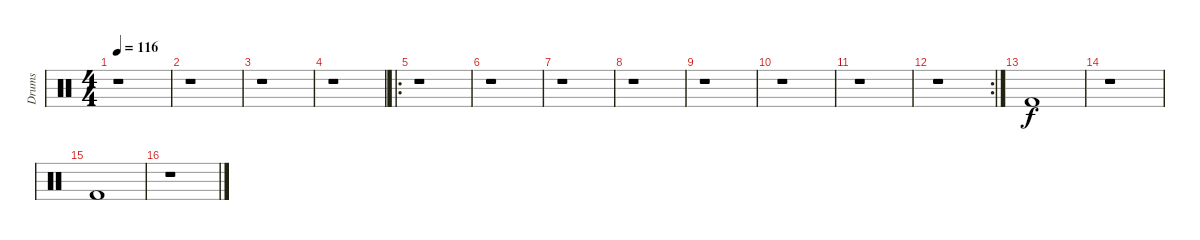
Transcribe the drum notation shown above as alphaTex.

\track ("Drums" "Drums") {instrument percussion}
\staff {score}
\articulation defaults
\ts (4 4)
\tempo 116
\clef neutral
\ks c
r.1{dy f} |
r.1 |
r.1 |
r.1 |
\ro
r.1 |
r.1 |
r.1 |
r.1 |
r.1 |
r.1 |
r.1 |
\rc 2
r.1 |
"Kick (hit) 2".1 |
r.1 |
"Kick (hit) 2".1 |
r.1
